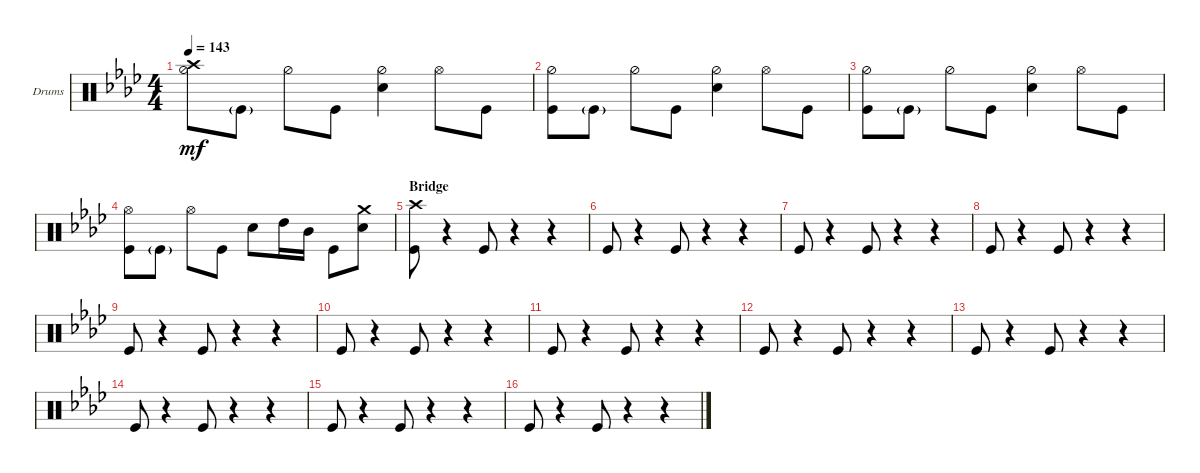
\defaultSystemsLayout 4
\bracketExtendMode groupsimilarinstruments
\firstSystemTrackNameOrientation horizontal
\otherSystemsTrackNameOrientation horizontal
\track ("Drumkit" "Drums") {instrument percussion}
\staff {score}
\articulation defaults
\ts (4 4)
\tempo 143
\clef neutral
\ks fminor
("Crash high (hit)" "Hi-Hat (half)").8{dy mf} "Kick (hit)"{g}.8 "Hi-Hat (half)".8 "Kick (hit)".8 ("Snare (hit) 2" "Hi-Hat (half)").4 "Hi-Hat (open)".8 "Kick (hit)".8 |
("Kick (hit)" "Hi-Hat (half)").8 "Kick (hit)"{g}.8 "Hi-Hat (half)".8 "Kick (hit)".8 ("Snare (hit) 2" "Hi-Hat (half)").4 "Hi-Hat (open)".8 "Kick (hit)".8 |
("Kick (hit)" "Hi-Hat (half)").8 "Kick (hit)"{g}.8 "Hi-Hat (half)".8 "Kick (hit)".8 ("Snare (hit) 2" "Hi-Hat (half)").4 "Hi-Hat (open)".8 "Kick (hit)".8 |
("Kick (hit)" "Hi-Hat (open)").8 "Kick (hit)"{g}.8 "Hi-Hat (open)".8 "Kick (hit)".8 "Snare (hit) 2".8 "High Tom (hit)".16 "Mid Tom (hit)".16 "Kick (hit)".8 ("Snare (hit) 2" "Crash medium (hit)").8 |
\section ("" "Bridge")
("Crash high (hit)" "Kick (hit)").8 r.4 "Kick (hit)".8 r.4 r.4 |
"Kick (hit)".8 r.4 "Kick (hit)".8 r.4 r.4 |
"Kick (hit)".8 r.4 "Kick (hit)".8 r.4 r.4 |
"Kick (hit)".8 r.4 "Kick (hit)".8 r.4 r.4 |
"Kick (hit)".8 r.4 "Kick (hit)".8 r.4 r.4 |
"Kick (hit)".8 r.4 "Kick (hit)".8 r.4 r.4 |
"Kick (hit)".8 r.4 "Kick (hit)".8 r.4 r.4 |
"Kick (hit)".8 r.4 "Kick (hit)".8 r.4 r.4 |
"Kick (hit)".8 r.4 "Kick (hit)".8 r.4 r.4 |
"Kick (hit)".8 r.4 "Kick (hit)".8 r.4 r.4 |
"Kick (hit)".8 r.4 "Kick (hit)".8 r.4 r.4 |
"Kick (hit)".8 r.4 "Kick (hit)".8 r.4 r.4
